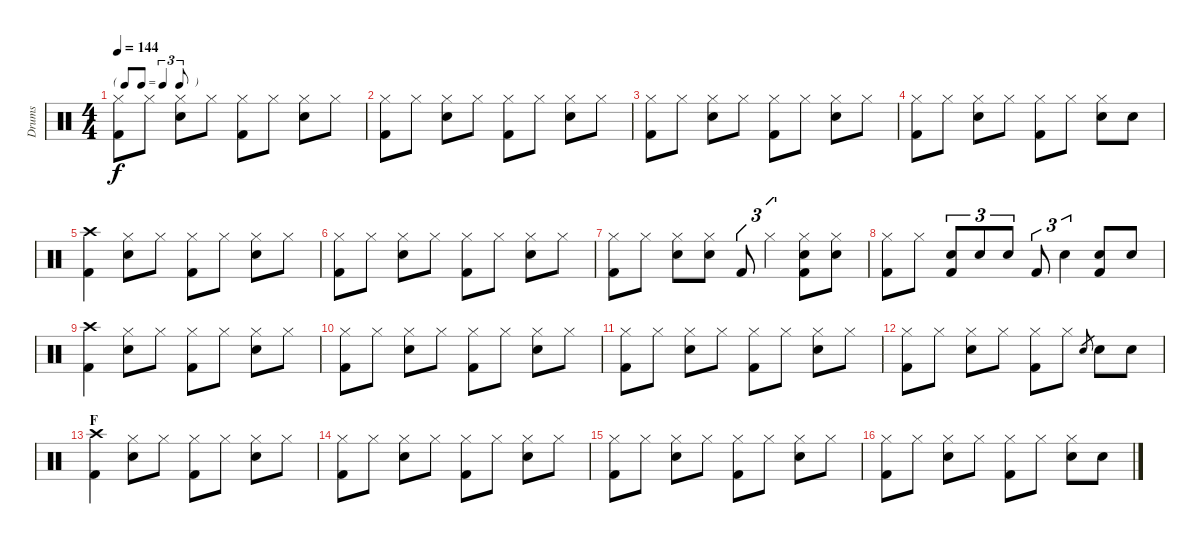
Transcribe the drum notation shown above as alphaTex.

\track ("Drums" "Drums") {instrument percussion}
\staff {score}
\articulation defaults
\ts (4 4)
\tf triplet8th
\tempo 144
\clef neutral
\ks c
("Hi-Hat (closed)" "Kick (hit) 2").8{dy f} "Hi-Hat (closed)".8 ("Hi-Hat (closed)" "Electric Snare (hit)").8 "Hi-Hat (closed)".8 ("Hi-Hat (closed)" "Kick (hit) 2").8 "Hi-Hat (closed)".8 ("Hi-Hat (closed)" "Electric Snare (hit)").8 "Hi-Hat (closed)".8 |
("Hi-Hat (closed)" "Kick (hit) 2").8 "Hi-Hat (closed)".8 ("Hi-Hat (closed)" "Electric Snare (hit)").8 "Hi-Hat (closed)".8 ("Hi-Hat (closed)" "Kick (hit) 2").8 "Hi-Hat (closed)".8 ("Hi-Hat (closed)" "Electric Snare (hit)").8 "Hi-Hat (closed)".8 |
("Hi-Hat (closed)" "Kick (hit) 2").8 "Hi-Hat (closed)".8 ("Hi-Hat (closed)" "Electric Snare (hit)").8 "Hi-Hat (closed)".8 ("Hi-Hat (closed)" "Kick (hit) 2").8 "Hi-Hat (closed)".8 ("Hi-Hat (closed)" "Electric Snare (hit)").8 "Hi-Hat (closed)".8 |
("Hi-Hat (closed)" "Kick (hit) 2").8 "Hi-Hat (closed)".8 ("Hi-Hat (closed)" "Electric Snare (hit)").8 "Hi-Hat (closed)".8 ("Hi-Hat (closed)" "Kick (hit) 2").8 "Hi-Hat (closed)".8 ("Hi-Hat (closed)" "Electric Snare (hit)").8 "Electric Snare (hit)".8 |
("Crash high (hit)" "Kick (hit) 2").4 ("Hi-Hat (closed)" "Electric Snare (hit)").8 "Hi-Hat (closed)".8 ("Hi-Hat (closed)" "Kick (hit) 2").8 "Hi-Hat (closed)".8 ("Hi-Hat (closed)" "Electric Snare (hit)").8 "Hi-Hat (closed)".8 |
("Hi-Hat (closed)" "Kick (hit) 2").8 "Hi-Hat (closed)".8 ("Hi-Hat (closed)" "Electric Snare (hit)").8 "Hi-Hat (closed)".8 ("Hi-Hat (closed)" "Kick (hit) 2").8 "Hi-Hat (closed)".8 ("Hi-Hat (closed)" "Electric Snare (hit)").8 "Hi-Hat (closed)".8 |
("Hi-Hat (closed)" "Kick (hit) 2").8 "Hi-Hat (closed)".8 ("Hi-Hat (closed)" "Electric Snare (hit)").8 ("Hi-Hat (closed)" "Electric Snare (hit)").8 "Kick (hit) 2".8{tu (3 2)} "Hi-Hat (closed)".4{tu (3 2)} ("Hi-Hat (closed)" "Electric Snare (hit)" "Kick (hit) 2").8 ("Hi-Hat (closed)" "Electric Snare (hit)").8 |
("Hi-Hat (closed)" "Kick (hit) 2").8 "Hi-Hat (closed)".8 ("Electric Snare (hit)" "Kick (hit) 2").8{tu (3 2)} "Electric Snare (hit)".8{tu (3 2)} "Electric Snare (hit)".8{tu (3 2)} "Kick (hit) 2".8{tu (3 2)} "Electric Snare (hit)".4{tu (3 2)} ("Electric Snare (hit)" "Kick (hit) 2").8 "Electric Snare (hit)".8 |
("Crash high (hit)" "Kick (hit) 2").4 ("Hi-Hat (closed)" "Electric Snare (hit)").8 "Hi-Hat (closed)".8 ("Hi-Hat (closed)" "Kick (hit) 2").8 "Hi-Hat (closed)".8 ("Hi-Hat (closed)" "Electric Snare (hit)").8 "Hi-Hat (closed)".8 |
("Hi-Hat (closed)" "Kick (hit) 2").8 "Hi-Hat (closed)".8 ("Hi-Hat (closed)" "Electric Snare (hit)").8 "Hi-Hat (closed)".8 ("Hi-Hat (closed)" "Kick (hit) 2").8 "Hi-Hat (closed)".8 ("Hi-Hat (closed)" "Electric Snare (hit)").8 "Hi-Hat (closed)".8 |
("Hi-Hat (closed)" "Kick (hit) 2").8 "Hi-Hat (closed)".8 ("Hi-Hat (closed)" "Electric Snare (hit)").8 "Hi-Hat (closed)".8 ("Hi-Hat (closed)" "Kick (hit) 2").8 "Hi-Hat (closed)".8 ("Hi-Hat (closed)" "Electric Snare (hit)").8 "Hi-Hat (closed)".8 |
("Hi-Hat (closed)" "Kick (hit) 2").8 "Hi-Hat (closed)".8 ("Hi-Hat (closed)" "Electric Snare (hit)").8 "Hi-Hat (closed)".8 ("Hi-Hat (closed)" "Kick (hit) 2").8 "Hi-Hat (closed)".8 "Electric Snare (hit)".8{gr} "Electric Snare (hit)".8 "Electric Snare (hit)".8 |
\section ("" "F")
("Crash high (hit)" "Kick (hit) 2").4 ("Hi-Hat (closed)" "Electric Snare (hit)").8 "Hi-Hat (closed)".8 ("Hi-Hat (closed)" "Kick (hit) 2").8 "Hi-Hat (closed)".8 ("Hi-Hat (closed)" "Electric Snare (hit)").8 "Hi-Hat (closed)".8 |
("Hi-Hat (closed)" "Kick (hit) 2").8 "Hi-Hat (closed)".8 ("Hi-Hat (closed)" "Electric Snare (hit)").8 "Hi-Hat (closed)".8 ("Hi-Hat (closed)" "Kick (hit) 2").8 "Hi-Hat (closed)".8 ("Hi-Hat (closed)" "Electric Snare (hit)").8 "Hi-Hat (closed)".8 |
("Hi-Hat (closed)" "Kick (hit) 2").8 "Hi-Hat (closed)".8 ("Hi-Hat (closed)" "Electric Snare (hit)").8 "Hi-Hat (closed)".8 ("Hi-Hat (closed)" "Kick (hit) 2").8 "Hi-Hat (closed)".8 ("Hi-Hat (closed)" "Electric Snare (hit)").8 "Hi-Hat (closed)".8 |
("Hi-Hat (closed)" "Kick (hit) 2").8 "Hi-Hat (closed)".8 ("Hi-Hat (closed)" "Electric Snare (hit)").8 "Hi-Hat (closed)".8 ("Hi-Hat (closed)" "Kick (hit) 2").8 "Hi-Hat (closed)".8 ("Hi-Hat (closed)" "Electric Snare (hit)").8 "Electric Snare (hit)".8
